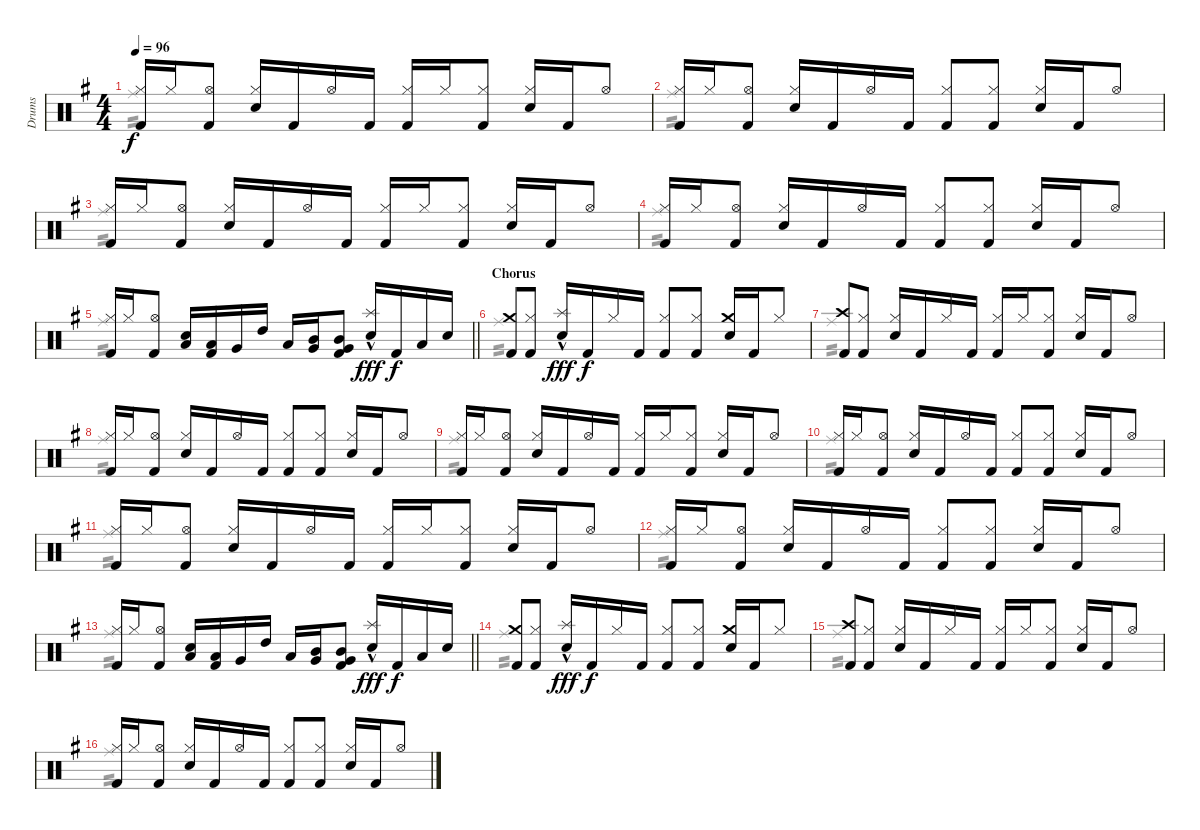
\track ("Drums" "Drums") {instrument percussion}
\staff {score}
\articulation defaults
\voice
\ts (4 4)
\tempo 96
\clef neutral
\ks g
("Hi-Hat (closed)" "Kick (hit) 2").16{dy f} "Hi-Hat (closed)".16 ("Hi-Hat (open)" "Kick (hit) 2").8 ("Hi-Hat (closed)" "Electric Snare (hit)").16 "Kick (hit) 2".16 "Hi-Hat (open)".16 "Kick (hit) 2".16 ("Hi-Hat (closed)" "Kick (hit) 2").16 "Hi-Hat (closed)".16 ("Hi-Hat (closed)" "Kick (hit) 2").8 ("Hi-Hat (closed)" "Electric Snare (hit)").16 "Kick (hit) 2".16 "Hi-Hat (open)".8 |
("Hi-Hat (closed)" "Kick (hit) 2").16 "Hi-Hat (closed)".16 ("Hi-Hat (open)" "Kick (hit) 2").8 ("Hi-Hat (closed)" "Electric Snare (hit)").16 "Kick (hit) 2".16 "Hi-Hat (open)".16 "Kick (hit) 2".16 ("Hi-Hat (closed)" "Kick (hit) 2").8 ("Hi-Hat (closed)" "Kick (hit) 2").8 ("Hi-Hat (closed)" "Electric Snare (hit)").16 "Kick (hit) 2".16 "Hi-Hat (open)".8 |
("Hi-Hat (closed)" "Kick (hit) 2").16 "Hi-Hat (closed)".16 ("Hi-Hat (open)" "Kick (hit) 2").8 ("Hi-Hat (closed)" "Electric Snare (hit)").16 "Kick (hit) 2".16 "Hi-Hat (open)".16 "Kick (hit) 2".16 ("Hi-Hat (closed)" "Kick (hit) 2").16 "Hi-Hat (closed)".16 ("Hi-Hat (closed)" "Kick (hit) 2").8 ("Hi-Hat (closed)" "Electric Snare (hit)").16 "Kick (hit) 2".16 "Hi-Hat (open)".8 |
("Hi-Hat (closed)" "Kick (hit) 2").16 "Hi-Hat (closed)".16 ("Hi-Hat (open)" "Kick (hit) 2").8 ("Hi-Hat (closed)" "Electric Snare (hit)").16 "Kick (hit) 2".16 "Hi-Hat (open)".16 "Kick (hit) 2".16 ("Hi-Hat (closed)" "Kick (hit) 2").8 ("Hi-Hat (closed)" "Kick (hit) 2").8 ("Hi-Hat (closed)" "Electric Snare (hit)").16 "Kick (hit) 2".16 "Hi-Hat (open)".8 |
\barLineRight lightlight
("Hi-Hat (closed)" "Kick (hit) 2").16 "Hi-Hat (closed)".16 ("Hi-Hat (open)" "Kick (hit) 2").8 ("Electric Snare (hit)" "Low Tom (hit)").16 ("Low Tom (hit)" "Kick (hit) 2").16 "Very Low Tom (hit)".16 "High Tom (hit)".16 "Low Floor Tom (hit)".16 ("Mid Tom (hit)" "Very Low Tom (hit)").16 ("Mid Tom (hit)" "Very Low Tom (hit)" "Kick (hit) 2").8 ("Splash (hit)"{hac} "Electric Snare (hit)").16{dy fff} "Kick (hit) 2".16{dy f} "Low Tom (hit)".16 "Electric Snare (hit)".16 |
\section ("" "Chorus")
("Crash medium (hit)" "Kick (hit) 2").8 ("Hi-Hat (closed)" "Kick (hit) 2").8 ("Splash (hit)"{hac} "Electric Snare (hit)").16{dy fff} "Kick (hit) 2".16{dy f} "Hi-Hat (closed)".16 "Kick (hit) 2".16 ("Hi-Hat (closed)" "Kick (hit) 2").8 ("Hi-Hat (closed)" "Kick (hit) 2").8 ("Crash medium (hit)" "Electric Snare (hit)").16 "Kick (hit) 2".16 "Hi-Hat (closed)".8 |
("Crash high (hit)" "Kick (hit) 2").8 ("Hi-Hat (closed)" "Kick (hit) 2").8 ("Hi-Hat (closed)" "Electric Snare (hit)").16 "Kick (hit) 2".16 "Hi-Hat (closed)".16 "Kick (hit) 2".16 ("Hi-Hat (closed)" "Kick (hit) 2").16 "Hi-Hat (closed)".16 ("Hi-Hat (closed)" "Kick (hit) 2").8 ("Hi-Hat (closed)" "Electric Snare (hit)").16 "Kick (hit) 2".16 "Hi-Hat (open)".8 |
("Hi-Hat (closed)" "Kick (hit) 2").16 "Hi-Hat (closed)".16 ("Hi-Hat (open)" "Kick (hit) 2").8 ("Hi-Hat (closed)" "Electric Snare (hit)").16 "Kick (hit) 2".16 "Hi-Hat (open)".16 "Kick (hit) 2".16 ("Hi-Hat (closed)" "Kick (hit) 2").8 ("Hi-Hat (closed)" "Kick (hit) 2").8 ("Hi-Hat (closed)" "Electric Snare (hit)").16 "Kick (hit) 2".16 "Hi-Hat (open)".8 |
("Hi-Hat (closed)" "Kick (hit) 2").16 "Hi-Hat (closed)".16 ("Hi-Hat (open)" "Kick (hit) 2").8 ("Hi-Hat (closed)" "Electric Snare (hit)").16 "Kick (hit) 2".16 "Hi-Hat (open)".16 "Kick (hit) 2".16 ("Hi-Hat (closed)" "Kick (hit) 2").16 "Hi-Hat (closed)".16 ("Hi-Hat (closed)" "Kick (hit) 2").8 ("Hi-Hat (closed)" "Electric Snare (hit)").16 "Kick (hit) 2".16 "Hi-Hat (open)".8 |
("Hi-Hat (closed)" "Kick (hit) 2").16 "Hi-Hat (closed)".16 ("Hi-Hat (open)" "Kick (hit) 2").8 ("Hi-Hat (closed)" "Electric Snare (hit)").16 "Kick (hit) 2".16 "Hi-Hat (open)".16 "Kick (hit) 2".16 ("Hi-Hat (closed)" "Kick (hit) 2").8 ("Hi-Hat (closed)" "Kick (hit) 2").8 ("Hi-Hat (closed)" "Electric Snare (hit)").16 "Kick (hit) 2".16 "Hi-Hat (open)".8 |
("Hi-Hat (closed)" "Kick (hit) 2").16 "Hi-Hat (closed)".16 ("Hi-Hat (open)" "Kick (hit) 2").8 ("Hi-Hat (closed)" "Electric Snare (hit)").16 "Kick (hit) 2".16 "Hi-Hat (open)".16 "Kick (hit) 2".16 ("Hi-Hat (closed)" "Kick (hit) 2").16 "Hi-Hat (closed)".16 ("Hi-Hat (closed)" "Kick (hit) 2").8 ("Hi-Hat (closed)" "Electric Snare (hit)").16 "Kick (hit) 2".16 "Hi-Hat (open)".8 |
("Hi-Hat (closed)" "Kick (hit) 2").16 "Hi-Hat (closed)".16 ("Hi-Hat (open)" "Kick (hit) 2").8 ("Hi-Hat (closed)" "Electric Snare (hit)").16 "Kick (hit) 2".16 "Hi-Hat (open)".16 "Kick (hit) 2".16 ("Hi-Hat (closed)" "Kick (hit) 2").8 ("Hi-Hat (closed)" "Kick (hit) 2").8 ("Hi-Hat (closed)" "Electric Snare (hit)").16 "Kick (hit) 2".16 "Hi-Hat (open)".8 |
\barLineRight lightlight
("Hi-Hat (closed)" "Kick (hit) 2").16 "Hi-Hat (closed)".16 ("Hi-Hat (open)" "Kick (hit) 2").8 ("Electric Snare (hit)" "Low Tom (hit)").16 ("Low Tom (hit)" "Kick (hit) 2").16 "Very Low Tom (hit)".16 "High Tom (hit)".16 "Low Floor Tom (hit)".16 ("Mid Tom (hit)" "Very Low Tom (hit)").16 ("Mid Tom (hit)" "Very Low Tom (hit)" "Kick (hit) 2").8 ("Splash (hit)"{hac} "Electric Snare (hit)").16{dy fff} "Kick (hit) 2".16{dy f} "Low Tom (hit)".16 "Electric Snare (hit)".16 |
\section ("" "")
("Crash medium (hit)" "Kick (hit) 2").8 ("Hi-Hat (closed)" "Kick (hit) 2").8 ("Splash (hit)"{hac} "Electric Snare (hit)").16{dy fff} "Kick (hit) 2".16{dy f} "Hi-Hat (closed)".16 "Kick (hit) 2".16 ("Hi-Hat (closed)" "Kick (hit) 2").8 ("Hi-Hat (closed)" "Kick (hit) 2").8 ("Crash medium (hit)" "Electric Snare (hit)").16 "Kick (hit) 2".16 "Hi-Hat (closed)".8 |
("Crash high (hit)" "Kick (hit) 2").8 ("Hi-Hat (closed)" "Kick (hit) 2").8 ("Hi-Hat (closed)" "Electric Snare (hit)").16 "Kick (hit) 2".16 "Hi-Hat (closed)".16 "Kick (hit) 2".16 ("Hi-Hat (closed)" "Kick (hit) 2").16 "Hi-Hat (closed)".16 ("Hi-Hat (closed)" "Kick (hit) 2").8 ("Hi-Hat (closed)" "Electric Snare (hit)").16 "Kick (hit) 2".16 "Hi-Hat (open)".8 |
("Hi-Hat (closed)" "Kick (hit) 2").16 "Hi-Hat (closed)".16 ("Hi-Hat (open)" "Kick (hit) 2").8 ("Hi-Hat (closed)" "Electric Snare (hit)").16 "Kick (hit) 2".16 "Hi-Hat (open)".16 "Kick (hit) 2".16 ("Hi-Hat (closed)" "Kick (hit) 2").8 ("Hi-Hat (closed)" "Kick (hit) 2").8 ("Hi-Hat (closed)" "Electric Snare (hit)").16 "Kick (hit) 2".16 "Hi-Hat (open)".8
\voice
\clef neutral
\ottava regular
\simile none
\ks g "Ride (middle)".1{tp 2 dy f}
|
"Ride (middle)".1{tp 2} |
"Ride (middle)".1{tp 2} |
"Ride (middle)".1{tp 2} |
\barLineRight lightlight "Ride (middle)".1{tp 2}
|
"Ride (middle)".1{tp 2} |
"Ride (middle)".1{tp 2} |
"Ride (middle)".1{tp 2} |
"Ride (middle)".1{tp 2} |
"Ride (middle)".1{tp 2} |
"Ride (middle)".1{tp 2} |
"Ride (middle)".1{tp 2} |
\barLineRight lightlight "Ride (middle)".1{tp 2}
|
"Ride (middle)".1{tp 2} |
"Ride (middle)".1{tp 2} |
"Ride (middle)".1{tp 2}
